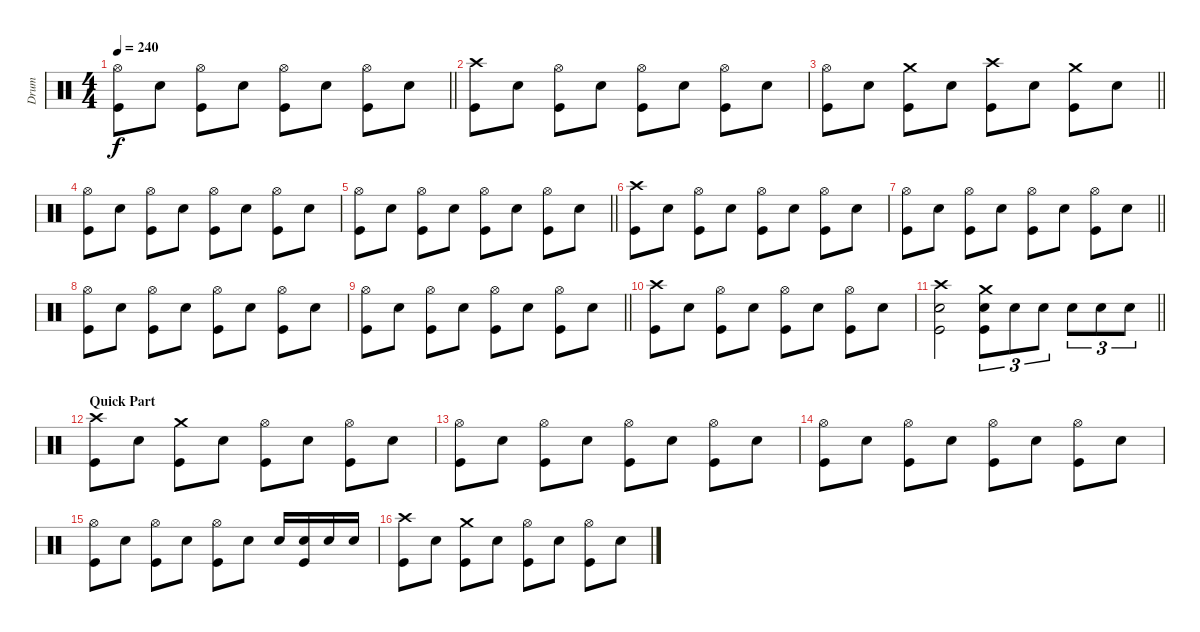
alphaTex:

\track ("Drum" "Drum") {instrument percussion}
\staff {score}
\articulation defaults
\ts (4 4)
\tempo 240
\clef neutral
\barLineRight lightlight
\ks c
("Hi-Hat (open)" "Kick (hit)").8{dy f} "Snare (hit) 2".8 ("Hi-Hat (open)" "Kick (hit)").8 "Snare (hit) 2".8 ("Hi-Hat (open)" "Kick (hit)").8 "Snare (hit) 2".8 ("Hi-Hat (open)" "Kick (hit)").8 "Snare (hit) 2".8 |
("Crash high (hit)" "Kick (hit)").8 "Snare (hit) 2".8 ("Hi-Hat (open)" "Kick (hit)").8 "Snare (hit) 2".8 ("Hi-Hat (open)" "Kick (hit)").8 "Snare (hit) 2".8 ("Hi-Hat (open)" "Kick (hit)").8 "Snare (hit) 2".8 |
\barLineRight lightlight
("Hi-Hat (open)" "Kick (hit)").8 "Snare (hit) 2".8 ("Crash medium (hit)" "Kick (hit)").8 "Snare (hit) 2".8 ("Crash high (hit)" "Kick (hit)").8 "Snare (hit) 2".8 ("Crash medium (hit)" "Kick (hit)").8 "Snare (hit) 2".8 |
("Hi-Hat (open)" "Kick (hit)").8 "Snare (hit) 2".8 ("Hi-Hat (open)" "Kick (hit)").8 "Snare (hit) 2".8 ("Hi-Hat (open)" "Kick (hit)").8 "Snare (hit) 2".8 ("Hi-Hat (open)" "Kick (hit)").8 "Snare (hit) 2".8 |
\barLineRight lightlight
("Hi-Hat (open)" "Kick (hit)").8 "Snare (hit) 2".8 ("Hi-Hat (open)" "Kick (hit)").8 "Snare (hit) 2".8 ("Hi-Hat (open)" "Kick (hit)").8 "Snare (hit) 2".8 ("Hi-Hat (open)" "Kick (hit)").8 "Snare (hit) 2".8 |
("Crash high (hit)" "Kick (hit)").8 "Snare (hit) 2".8 ("Hi-Hat (open)" "Kick (hit)").8 "Snare (hit) 2".8 ("Hi-Hat (open)" "Kick (hit)").8 "Snare (hit) 2".8 ("Hi-Hat (open)" "Kick (hit)").8 "Snare (hit) 2".8 |
\barLineRight lightlight
("Hi-Hat (open)" "Kick (hit)").8 "Snare (hit) 2".8 ("Hi-Hat (open)" "Kick (hit)").8 "Snare (hit) 2".8 ("Hi-Hat (open)" "Kick (hit)").8 "Snare (hit) 2".8 ("Hi-Hat (open)" "Kick (hit)").8 "Snare (hit) 2".8 |
("Hi-Hat (open)" "Kick (hit)").8 "Snare (hit) 2".8 ("Hi-Hat (open)" "Kick (hit)").8 "Snare (hit) 2".8 ("Hi-Hat (open)" "Kick (hit)").8 "Snare (hit) 2".8 ("Hi-Hat (open)" "Kick (hit)").8 "Snare (hit) 2".8 |
\barLineRight lightlight
("Hi-Hat (open)" "Kick (hit)").8 "Snare (hit) 2".8 ("Hi-Hat (open)" "Kick (hit)").8 "Snare (hit) 2".8 ("Hi-Hat (open)" "Kick (hit)").8 "Snare (hit) 2".8 ("Hi-Hat (open)" "Kick (hit)").8 "Snare (hit) 2".8 |
("Crash high (hit)" "Kick (hit)").8 "Snare (hit) 2".8 ("Hi-Hat (open)" "Kick (hit)").8 "Snare (hit) 2".8 ("Hi-Hat (open)" "Kick (hit)").8 "Snare (hit) 2".8 ("Hi-Hat (open)" "Kick (hit)").8 "Snare (hit) 2".8 |
\barLineRight lightlight
("Crash high (hit)" "Snare (hit) 2" "Kick (hit)").2 ("Crash medium (hit)" "Snare (hit) 2" "Kick (hit)").8{tu (3 2)} "Snare (hit) 2".8{tu (3 2)} "Snare (hit) 2".8{tu (3 2)} "Snare (hit) 2".8{tu (3 2)} "Snare (hit) 2".8{tu (3 2)} "Snare (hit) 2".8{tu (3 2)} |
\section ("" "Quick Part")
("Crash high (hit)" "Kick (hit)").8 "Snare (hit) 2".8 ("Crash medium (hit)" "Kick (hit)").8 "Snare (hit) 2".8 ("Hi-Hat (open)" "Kick (hit)").8 "Snare (hit) 2".8 ("Hi-Hat (open)" "Kick (hit)").8 "Snare (hit) 2".8 |
("Hi-Hat (open)" "Kick (hit)").8 "Snare (hit) 2".8 ("Hi-Hat (open)" "Kick (hit)").8 "Snare (hit) 2".8 ("Hi-Hat (open)" "Kick (hit)").8 "Snare (hit) 2".8 ("Hi-Hat (open)" "Kick (hit)").8 "Snare (hit) 2".8 |
("Hi-Hat (open)" "Kick (hit)").8 "Snare (hit) 2".8 ("Hi-Hat (open)" "Kick (hit)").8 "Snare (hit) 2".8 ("Hi-Hat (open)" "Kick (hit)").8 "Snare (hit) 2".8 ("Hi-Hat (open)" "Kick (hit)").8 "Snare (hit) 2".8 |
("Hi-Hat (open)" "Kick (hit)").8 "Snare (hit) 2".8 ("Hi-Hat (open)" "Kick (hit)").8 "Snare (hit) 2".8 ("Hi-Hat (open)" "Kick (hit)").8 "Snare (hit) 2".8 "Snare (hit) 2".16 ("Snare (hit) 2" "Kick (hit)").16 "Snare (hit) 2".16 "Snare (hit) 2".16 |
("Crash high (hit)" "Kick (hit)").8 "Snare (hit) 2".8 ("Crash medium (hit)" "Kick (hit)").8 "Snare (hit) 2".8 ("Hi-Hat (open)" "Kick (hit)").8 "Snare (hit) 2".8 ("Hi-Hat (open)" "Kick (hit)").8 "Snare (hit) 2".8
